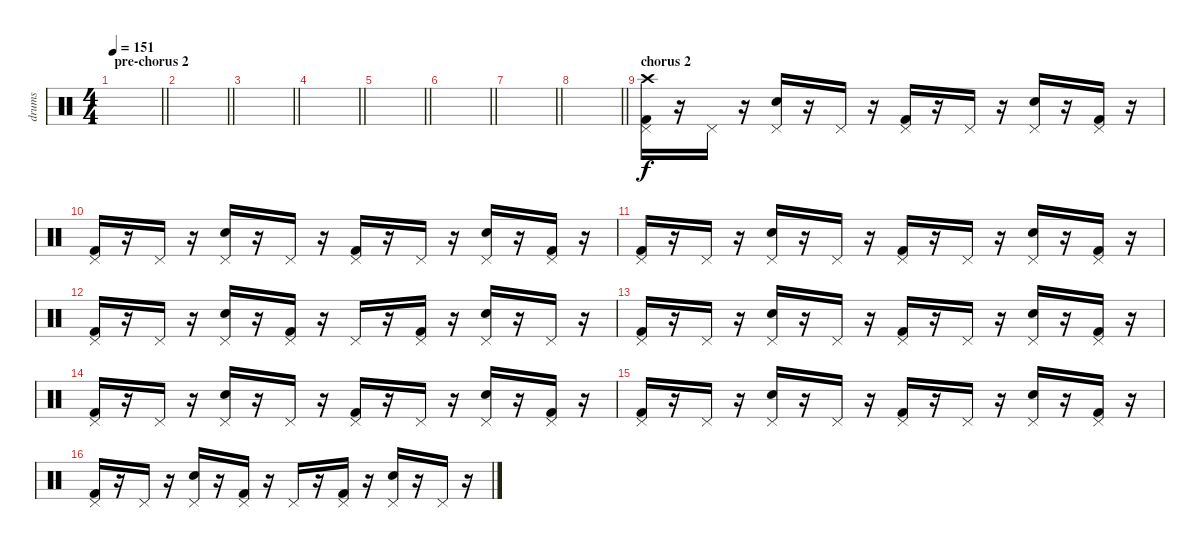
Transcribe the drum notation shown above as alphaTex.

\track ("drums" "drums") {instrument percussion}
\staff {score}
\articulation defaults
\ts (4 4)
\section ("" "pre-chorus 2")
\tempo 151
\clef neutral
\barLineRight lightlight
\ks c
|
\barLineRight lightlight
|
\barLineRight lightlight
|
\barLineRight lightlight
|
\barLineRight lightlight
|
\barLineRight lightlight
|
\barLineRight lightlight
|
\barLineRight lightlight
|
\section ("" "chorus 2")
("Kick (hit) 2" "Pedal Hi-Hat (hit)" "Crash high (hit)").16 r.16 "Pedal Hi-Hat (hit)".16 r.16 ("Electric Snare (hit)" "Pedal Hi-Hat (hit)").16 r.16 "Pedal Hi-Hat (hit)".16 r.16 ("Kick (hit) 2" "Pedal Hi-Hat (hit)").16 r.16 "Pedal Hi-Hat (hit)".16 r.16 ("Electric Snare (hit)" "Pedal Hi-Hat (hit)").16 r.16 ("Kick (hit) 2" "Pedal Hi-Hat (hit)").16 r.16 |
("Kick (hit) 2" "Pedal Hi-Hat (hit)").16 r.16 "Pedal Hi-Hat (hit)".16 r.16 ("Electric Snare (hit)" "Pedal Hi-Hat (hit)").16 r.16 "Pedal Hi-Hat (hit)".16 r.16 ("Kick (hit) 2" "Pedal Hi-Hat (hit)").16 r.16 "Pedal Hi-Hat (hit)".16 r.16 ("Electric Snare (hit)" "Pedal Hi-Hat (hit)").16 r.16 ("Kick (hit) 2" "Pedal Hi-Hat (hit)").16 r.16 |
("Kick (hit) 2" "Pedal Hi-Hat (hit)").16 r.16 "Pedal Hi-Hat (hit)".16 r.16 ("Electric Snare (hit)" "Pedal Hi-Hat (hit)").16 r.16 "Pedal Hi-Hat (hit)".16 r.16 ("Kick (hit) 2" "Pedal Hi-Hat (hit)").16 r.16 "Pedal Hi-Hat (hit)".16 r.16 ("Electric Snare (hit)" "Pedal Hi-Hat (hit)").16 r.16 ("Kick (hit) 2" "Pedal Hi-Hat (hit)").16 r.16 |
("Kick (hit) 2" "Pedal Hi-Hat (hit)").16 r.16 "Pedal Hi-Hat (hit)".16 r.16 ("Electric Snare (hit)" "Pedal Hi-Hat (hit)").16 r.16 ("Kick (hit) 2" "Pedal Hi-Hat (hit)").16 r.16 "Pedal Hi-Hat (hit)".16 r.16 ("Kick (hit) 2" "Pedal Hi-Hat (hit)").16 r.16 ("Electric Snare (hit)" "Pedal Hi-Hat (hit)").16 r.16 "Pedal Hi-Hat (hit)".16 r.16 |
("Kick (hit) 2" "Pedal Hi-Hat (hit)").16 r.16 "Pedal Hi-Hat (hit)".16 r.16 ("Electric Snare (hit)" "Pedal Hi-Hat (hit)").16 r.16 "Pedal Hi-Hat (hit)".16 r.16 ("Kick (hit) 2" "Pedal Hi-Hat (hit)").16 r.16 "Pedal Hi-Hat (hit)".16 r.16 ("Electric Snare (hit)" "Pedal Hi-Hat (hit)").16 r.16 ("Kick (hit) 2" "Pedal Hi-Hat (hit)").16 r.16 |
("Kick (hit) 2" "Pedal Hi-Hat (hit)").16 r.16 "Pedal Hi-Hat (hit)".16 r.16 ("Electric Snare (hit)" "Pedal Hi-Hat (hit)").16 r.16 "Pedal Hi-Hat (hit)".16 r.16 ("Kick (hit) 2" "Pedal Hi-Hat (hit)").16 r.16 "Pedal Hi-Hat (hit)".16 r.16 ("Electric Snare (hit)" "Pedal Hi-Hat (hit)").16 r.16 ("Kick (hit) 2" "Pedal Hi-Hat (hit)").16 r.16 |
("Kick (hit) 2" "Pedal Hi-Hat (hit)").16 r.16 "Pedal Hi-Hat (hit)".16 r.16 ("Electric Snare (hit)" "Pedal Hi-Hat (hit)").16 r.16 "Pedal Hi-Hat (hit)".16 r.16 ("Kick (hit) 2" "Pedal Hi-Hat (hit)").16 r.16 "Pedal Hi-Hat (hit)".16 r.16 ("Electric Snare (hit)" "Pedal Hi-Hat (hit)").16 r.16 ("Kick (hit) 2" "Pedal Hi-Hat (hit)").16 r.16 |
("Kick (hit) 2" "Pedal Hi-Hat (hit)").16 r.16 "Pedal Hi-Hat (hit)".16 r.16 ("Electric Snare (hit)" "Pedal Hi-Hat (hit)").16 r.16 ("Kick (hit) 2" "Pedal Hi-Hat (hit)").16 r.16 "Pedal Hi-Hat (hit)".16 r.16 ("Kick (hit) 2" "Pedal Hi-Hat (hit)").16 r.16 ("Electric Snare (hit)" "Pedal Hi-Hat (hit)").16 r.16 "Pedal Hi-Hat (hit)".16 r.16
